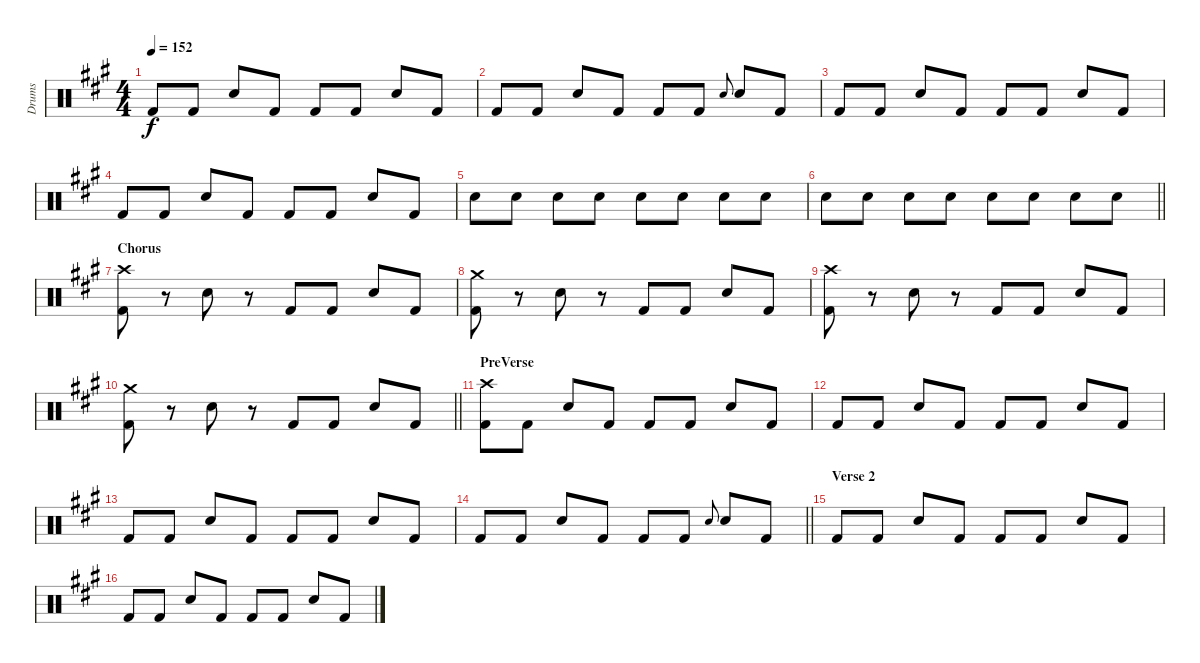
\track ("Drums" "Drums") {instrument percussion}
\staff {score}
\articulation defaults
\ts (4 4)
\tempo 152
\clef neutral
\ks a "Kick (hit) 2".8{dy f} "Kick (hit) 2".8 "Snare (hit) 2".8 "Kick (hit) 2".8 "Kick (hit) 2".8 "Kick (hit) 2".8 "Snare (hit) 2".8 "Kick (hit) 2".8
|
"Kick (hit) 2".8 "Kick (hit) 2".8 "Snare (hit) 2".8 "Kick (hit) 2".8 "Kick (hit) 2".8 "Kick (hit) 2".8 "Snare (hit) 2".8{gr onbeat} "Snare (hit) 2".8 "Kick (hit) 2".8 |
"Kick (hit) 2".8 "Kick (hit) 2".8 "Snare (hit) 2".8 "Kick (hit) 2".8 "Kick (hit) 2".8 "Kick (hit) 2".8 "Snare (hit) 2".8 "Kick (hit) 2".8 |
"Kick (hit) 2".8 "Kick (hit) 2".8 "Snare (hit) 2".8 "Kick (hit) 2".8 "Kick (hit) 2".8 "Kick (hit) 2".8 "Snare (hit) 2".8 "Kick (hit) 2".8 |
"Snare (hit) 2".8 "Snare (hit) 2".8 "Snare (hit) 2".8 "Snare (hit) 2".8 "Snare (hit) 2".8 "Snare (hit) 2".8 "Snare (hit) 2".8 "Snare (hit) 2".8 |
\barLineRight lightlight "Snare (hit) 2".8 "Snare (hit) 2".8 "Snare (hit) 2".8 "Snare (hit) 2".8 "Snare (hit) 2".8 "Snare (hit) 2".8 "Snare (hit) 2".8 "Snare (hit) 2".8
|
\section ("" "Chorus")
("Crash high (hit)" "Kick (hit) 2").8 r.8 "Snare (hit) 2".8 r.8 "Kick (hit) 2".8 "Kick (hit) 2".8 "Snare (hit) 2".8 "Kick (hit) 2".8 |
("Crash medium (hit)" "Kick (hit) 2").8 r.8 "Snare (hit) 2".8 r.8 "Kick (hit) 2".8 "Kick (hit) 2".8 "Snare (hit) 2".8 "Kick (hit) 2".8 |
("Crash high (hit)" "Kick (hit) 2").8 r.8 "Snare (hit) 2".8 r.8 "Kick (hit) 2".8 "Kick (hit) 2".8 "Snare (hit) 2".8 "Kick (hit) 2".8 |
\barLineRight lightlight
("Crash medium (hit)" "Kick (hit) 2").8 r.8 "Snare (hit) 2".8 r.8 "Kick (hit) 2".8 "Kick (hit) 2".8 "Snare (hit) 2".8 "Kick (hit) 2".8 |
\section ("" "PreVerse")
("Crash high (hit)" "Kick (hit) 2").8 "Kick (hit) 2".8 "Snare (hit) 2".8 "Kick (hit) 2".8 "Kick (hit) 2".8 "Kick (hit) 2".8 "Snare (hit) 2".8 "Kick (hit) 2".8 |
"Kick (hit) 2".8 "Kick (hit) 2".8 "Snare (hit) 2".8 "Kick (hit) 2".8 "Kick (hit) 2".8 "Kick (hit) 2".8 "Snare (hit) 2".8 "Kick (hit) 2".8 |
"Kick (hit) 2".8 "Kick (hit) 2".8 "Snare (hit) 2".8 "Kick (hit) 2".8 "Kick (hit) 2".8 "Kick (hit) 2".8 "Snare (hit) 2".8 "Kick (hit) 2".8 |
\barLineRight lightlight "Kick (hit) 2".8 "Kick (hit) 2".8 "Snare (hit) 2".8 "Kick (hit) 2".8 "Kick (hit) 2".8 "Kick (hit) 2".8 "Snare (hit) 2".8{gr onbeat} "Snare (hit) 2".8 "Kick (hit) 2".8
|
\section ("" "Verse 2")
"Kick (hit) 2".8 "Kick (hit) 2".8 "Snare (hit) 2".8 "Kick (hit) 2".8 "Kick (hit) 2".8 "Kick (hit) 2".8 "Snare (hit) 2".8 "Kick (hit) 2".8 |
"Kick (hit) 2".8 "Kick (hit) 2".8 "Snare (hit) 2".8 "Kick (hit) 2".8 "Kick (hit) 2".8 "Kick (hit) 2".8 "Snare (hit) 2".8 "Kick (hit) 2".8
